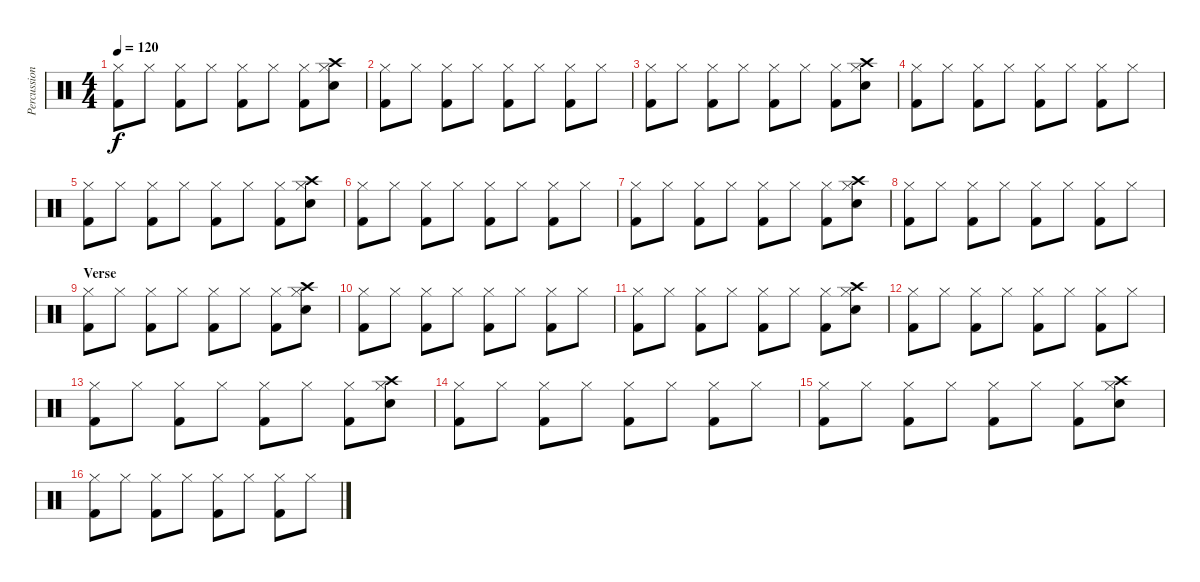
\track ("Percussion" "Percussion") {instrument percussion}
\staff {score}
\articulation defaults
\ts (4 4)
\tempo 120
\clef neutral
\ks c
("Hi-Hat (closed)" "Kick (hit) 2").8{dy f} "Hi-Hat (closed)".8 ("Hi-Hat (closed)" "Kick (hit) 2").8 "Hi-Hat (closed)".8 ("Hi-Hat (closed)" "Kick (hit) 2").8 "Hi-Hat (closed)".8 ("Hi-Hat (closed)" "Kick (hit) 2").8 ("Hi-Hat (closed)" "Snare (hit) 2" "Crash high (hit)").8 |
("Hi-Hat (closed)" "Kick (hit) 2").8 "Hi-Hat (closed)".8 ("Hi-Hat (closed)" "Kick (hit) 2").8 "Hi-Hat (closed)".8 ("Hi-Hat (closed)" "Kick (hit) 2").8 "Hi-Hat (closed)".8 ("Hi-Hat (closed)" "Kick (hit) 2").8 "Hi-Hat (closed)".8 |
("Hi-Hat (closed)" "Kick (hit) 2").8 "Hi-Hat (closed)".8 ("Hi-Hat (closed)" "Kick (hit) 2").8 "Hi-Hat (closed)".8 ("Hi-Hat (closed)" "Kick (hit) 2").8 "Hi-Hat (closed)".8 ("Hi-Hat (closed)" "Kick (hit) 2").8 ("Hi-Hat (closed)" "Snare (hit) 2" "Crash high (hit)").8 |
("Hi-Hat (closed)" "Kick (hit) 2").8 "Hi-Hat (closed)".8 ("Hi-Hat (closed)" "Kick (hit) 2").8 "Hi-Hat (closed)".8 ("Hi-Hat (closed)" "Kick (hit) 2").8 "Hi-Hat (closed)".8 ("Hi-Hat (closed)" "Kick (hit) 2").8 "Hi-Hat (closed)".8 |
("Hi-Hat (closed)" "Kick (hit) 2").8 "Hi-Hat (closed)".8 ("Hi-Hat (closed)" "Kick (hit) 2").8 "Hi-Hat (closed)".8 ("Hi-Hat (closed)" "Kick (hit) 2").8 "Hi-Hat (closed)".8 ("Hi-Hat (closed)" "Kick (hit) 2").8 ("Hi-Hat (closed)" "Snare (hit) 2" "Crash high (hit)").8 |
("Hi-Hat (closed)" "Kick (hit) 2").8 "Hi-Hat (closed)".8 ("Hi-Hat (closed)" "Kick (hit) 2").8 "Hi-Hat (closed)".8 ("Hi-Hat (closed)" "Kick (hit) 2").8 "Hi-Hat (closed)".8 ("Hi-Hat (closed)" "Kick (hit) 2").8 "Hi-Hat (closed)".8 |
("Hi-Hat (closed)" "Kick (hit) 2").8 "Hi-Hat (closed)".8 ("Hi-Hat (closed)" "Kick (hit) 2").8 "Hi-Hat (closed)".8 ("Hi-Hat (closed)" "Kick (hit) 2").8 "Hi-Hat (closed)".8 ("Hi-Hat (closed)" "Kick (hit) 2").8 ("Hi-Hat (closed)" "Snare (hit) 2" "Crash high (hit)").8 |
("Hi-Hat (closed)" "Kick (hit) 2").8 "Hi-Hat (closed)".8 ("Hi-Hat (closed)" "Kick (hit) 2").8 "Hi-Hat (closed)".8 ("Hi-Hat (closed)" "Kick (hit) 2").8 "Hi-Hat (closed)".8 ("Hi-Hat (closed)" "Kick (hit) 2").8 "Hi-Hat (closed)".8 |
\section ("" "Verse")
("Hi-Hat (closed)" "Kick (hit) 2").8 "Hi-Hat (closed)".8 ("Hi-Hat (closed)" "Kick (hit) 2").8 "Hi-Hat (closed)".8 ("Hi-Hat (closed)" "Kick (hit) 2").8 "Hi-Hat (closed)".8 ("Hi-Hat (closed)" "Kick (hit) 2").8 ("Hi-Hat (closed)" "Snare (hit) 2" "Crash high (hit)").8 |
("Hi-Hat (closed)" "Kick (hit) 2").8 "Hi-Hat (closed)".8 ("Hi-Hat (closed)" "Kick (hit) 2").8 "Hi-Hat (closed)".8 ("Hi-Hat (closed)" "Kick (hit) 2").8 "Hi-Hat (closed)".8 ("Hi-Hat (closed)" "Kick (hit) 2").8 "Hi-Hat (closed)".8 |
("Hi-Hat (closed)" "Kick (hit) 2").8 "Hi-Hat (closed)".8 ("Hi-Hat (closed)" "Kick (hit) 2").8 "Hi-Hat (closed)".8 ("Hi-Hat (closed)" "Kick (hit) 2").8 "Hi-Hat (closed)".8 ("Hi-Hat (closed)" "Kick (hit) 2").8 ("Hi-Hat (closed)" "Snare (hit) 2" "Crash high (hit)").8 |
("Hi-Hat (closed)" "Kick (hit) 2").8 "Hi-Hat (closed)".8 ("Hi-Hat (closed)" "Kick (hit) 2").8 "Hi-Hat (closed)".8 ("Hi-Hat (closed)" "Kick (hit) 2").8 "Hi-Hat (closed)".8 ("Hi-Hat (closed)" "Kick (hit) 2").8 "Hi-Hat (closed)".8 |
("Hi-Hat (closed)" "Kick (hit) 2").8 "Hi-Hat (closed)".8 ("Hi-Hat (closed)" "Kick (hit) 2").8 "Hi-Hat (closed)".8 ("Hi-Hat (closed)" "Kick (hit) 2").8 "Hi-Hat (closed)".8 ("Hi-Hat (closed)" "Kick (hit) 2").8 ("Hi-Hat (closed)" "Snare (hit) 2" "Crash high (hit)").8 |
("Hi-Hat (closed)" "Kick (hit) 2").8 "Hi-Hat (closed)".8 ("Hi-Hat (closed)" "Kick (hit) 2").8 "Hi-Hat (closed)".8 ("Hi-Hat (closed)" "Kick (hit) 2").8 "Hi-Hat (closed)".8 ("Hi-Hat (closed)" "Kick (hit) 2").8 "Hi-Hat (closed)".8 |
("Hi-Hat (closed)" "Kick (hit) 2").8 "Hi-Hat (closed)".8 ("Hi-Hat (closed)" "Kick (hit) 2").8 "Hi-Hat (closed)".8 ("Hi-Hat (closed)" "Kick (hit) 2").8 "Hi-Hat (closed)".8 ("Hi-Hat (closed)" "Kick (hit) 2").8 ("Hi-Hat (closed)" "Snare (hit) 2" "Crash high (hit)").8 |
("Hi-Hat (closed)" "Kick (hit) 2").8 "Hi-Hat (closed)".8 ("Hi-Hat (closed)" "Kick (hit) 2").8 "Hi-Hat (closed)".8 ("Hi-Hat (closed)" "Kick (hit) 2").8 "Hi-Hat (closed)".8 ("Hi-Hat (closed)" "Kick (hit) 2").8 "Hi-Hat (closed)".8
